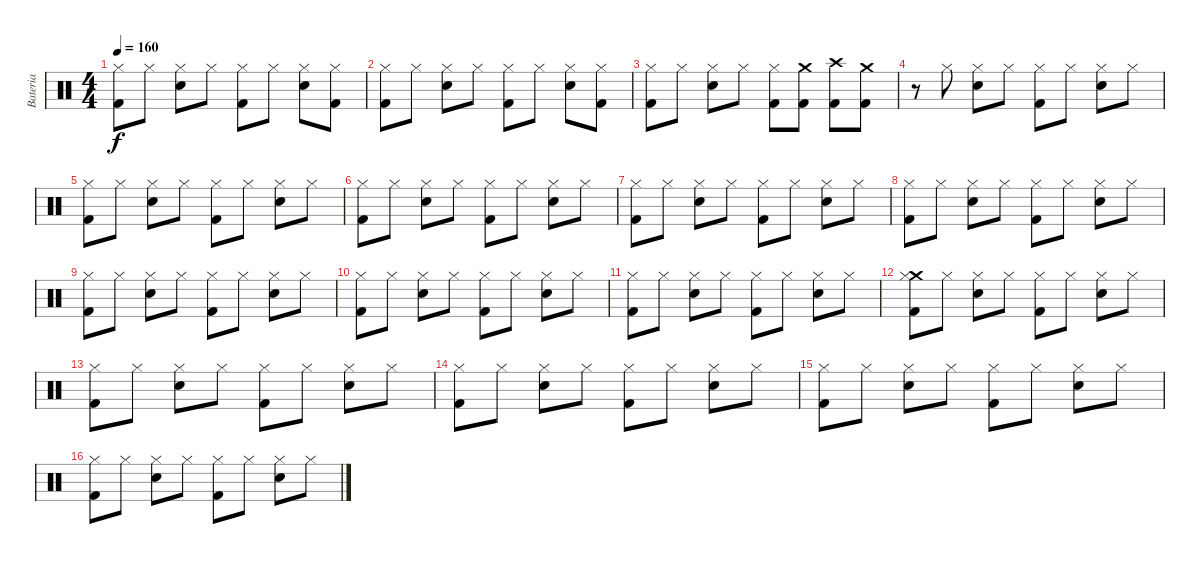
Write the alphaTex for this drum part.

\track ("Bateria" "Bateria") {instrument percussion}
\staff {score}
\articulation defaults
\ts (4 4)
\tempo 160
\clef neutral
\ks c
("Hi-Hat (closed)" "Kick (hit) 2").8{dy f} "Hi-Hat (closed)".8 ("Hi-Hat (closed)" "Electric Snare (hit)").8 "Hi-Hat (closed)".8 ("Hi-Hat (closed)" "Kick (hit) 2").8 "Hi-Hat (closed)".8 ("Hi-Hat (closed)" "Electric Snare (hit)").8 ("Hi-Hat (closed)" "Kick (hit) 2").8 |
("Hi-Hat (closed)" "Kick (hit) 2").8 "Hi-Hat (closed)".8 ("Hi-Hat (closed)" "Electric Snare (hit)").8 "Hi-Hat (closed)".8 ("Hi-Hat (closed)" "Kick (hit) 2").8 "Hi-Hat (closed)".8 ("Hi-Hat (closed)" "Electric Snare (hit)").8 ("Hi-Hat (closed)" "Kick (hit) 2").8 |
("Hi-Hat (closed)" "Kick (hit) 2").8 "Hi-Hat (closed)".8 ("Hi-Hat (closed)" "Electric Snare (hit)").8 "Hi-Hat (closed)".8 ("Hi-Hat (closed)" "Kick (hit) 2").8 ("Crash medium (hit)" "Kick (hit) 2").8 ("Crash high (hit)" "Kick (hit) 2").8 ("Crash medium (hit)" "Kick (hit) 2").8 |
r.8 "Hi-Hat (closed)".8 ("Hi-Hat (closed)" "Electric Snare (hit)").8 "Hi-Hat (closed)".8 ("Hi-Hat (closed)" "Kick (hit) 2").8 "Hi-Hat (closed)".8 ("Hi-Hat (closed)" "Electric Snare (hit)").8 "Hi-Hat (closed)".8 |
("Hi-Hat (closed)" "Kick (hit) 2").8 "Hi-Hat (closed)".8 ("Hi-Hat (closed)" "Electric Snare (hit)").8 "Hi-Hat (closed)".8 ("Hi-Hat (closed)" "Kick (hit) 2").8 "Hi-Hat (closed)".8 ("Hi-Hat (closed)" "Electric Snare (hit)").8 "Hi-Hat (closed)".8 |
("Hi-Hat (closed)" "Kick (hit) 2").8 "Hi-Hat (closed)".8 ("Hi-Hat (closed)" "Electric Snare (hit)").8 "Hi-Hat (closed)".8 ("Hi-Hat (closed)" "Kick (hit) 2").8 "Hi-Hat (closed)".8 ("Hi-Hat (closed)" "Electric Snare (hit)").8 "Hi-Hat (closed)".8 |
("Hi-Hat (closed)" "Kick (hit) 2").8 "Hi-Hat (closed)".8 ("Hi-Hat (closed)" "Electric Snare (hit)").8 "Hi-Hat (closed)".8 ("Hi-Hat (closed)" "Kick (hit) 2").8 "Hi-Hat (closed)".8 ("Hi-Hat (closed)" "Electric Snare (hit)").8 "Hi-Hat (closed)".8 |
("Hi-Hat (closed)" "Kick (hit) 2").8 "Hi-Hat (closed)".8 ("Hi-Hat (closed)" "Electric Snare (hit)").8 "Hi-Hat (closed)".8 ("Hi-Hat (closed)" "Kick (hit) 2").8 "Hi-Hat (closed)".8 ("Hi-Hat (closed)" "Electric Snare (hit)").8 "Hi-Hat (closed)".8 |
("Hi-Hat (closed)" "Kick (hit) 2").8 "Hi-Hat (closed)".8 ("Hi-Hat (closed)" "Electric Snare (hit)").8 "Hi-Hat (closed)".8 ("Hi-Hat (closed)" "Kick (hit) 2").8 "Hi-Hat (closed)".8 ("Hi-Hat (closed)" "Electric Snare (hit)").8 "Hi-Hat (closed)".8 |
("Hi-Hat (closed)" "Kick (hit) 2").8 "Hi-Hat (closed)".8 ("Hi-Hat (closed)" "Electric Snare (hit)").8 "Hi-Hat (closed)".8 ("Hi-Hat (closed)" "Kick (hit) 2").8 "Hi-Hat (closed)".8 ("Hi-Hat (closed)" "Electric Snare (hit)").8 "Hi-Hat (closed)".8 |
("Hi-Hat (closed)" "Kick (hit) 2").8 "Hi-Hat (closed)".8 ("Hi-Hat (closed)" "Electric Snare (hit)").8 "Hi-Hat (closed)".8 ("Hi-Hat (closed)" "Kick (hit) 2").8 "Hi-Hat (closed)".8 ("Hi-Hat (closed)" "Electric Snare (hit)").8 "Hi-Hat (closed)".8 |
("Crash medium (hit)" "Hi-Hat (closed)" "Kick (hit) 2").8 "Hi-Hat (closed)".8 ("Hi-Hat (closed)" "Electric Snare (hit)").8 "Hi-Hat (closed)".8 ("Hi-Hat (closed)" "Kick (hit) 2").8 "Hi-Hat (closed)".8 ("Hi-Hat (closed)" "Electric Snare (hit)").8 "Hi-Hat (closed)".8 |
("Hi-Hat (closed)" "Kick (hit) 2").8 "Hi-Hat (closed)".8 ("Hi-Hat (closed)" "Electric Snare (hit)").8 "Hi-Hat (closed)".8 ("Hi-Hat (closed)" "Kick (hit) 2").8 "Hi-Hat (closed)".8 ("Hi-Hat (closed)" "Electric Snare (hit)").8 "Hi-Hat (closed)".8 |
("Hi-Hat (closed)" "Kick (hit) 2").8 "Hi-Hat (closed)".8 ("Hi-Hat (closed)" "Electric Snare (hit)").8 "Hi-Hat (closed)".8 ("Hi-Hat (closed)" "Kick (hit) 2").8 "Hi-Hat (closed)".8 ("Hi-Hat (closed)" "Electric Snare (hit)").8 "Hi-Hat (closed)".8 |
("Hi-Hat (closed)" "Kick (hit) 2").8 "Hi-Hat (closed)".8 ("Hi-Hat (closed)" "Electric Snare (hit)").8 "Hi-Hat (closed)".8 ("Hi-Hat (closed)" "Kick (hit) 2").8 "Hi-Hat (closed)".8 ("Hi-Hat (closed)" "Electric Snare (hit)").8 "Hi-Hat (closed)".8 |
("Hi-Hat (closed)" "Kick (hit) 2").8 "Hi-Hat (closed)".8 ("Hi-Hat (closed)" "Electric Snare (hit)").8 "Hi-Hat (closed)".8 ("Hi-Hat (closed)" "Kick (hit) 2").8 "Hi-Hat (closed)".8 ("Hi-Hat (closed)" "Electric Snare (hit)").8 "Hi-Hat (closed)".8
